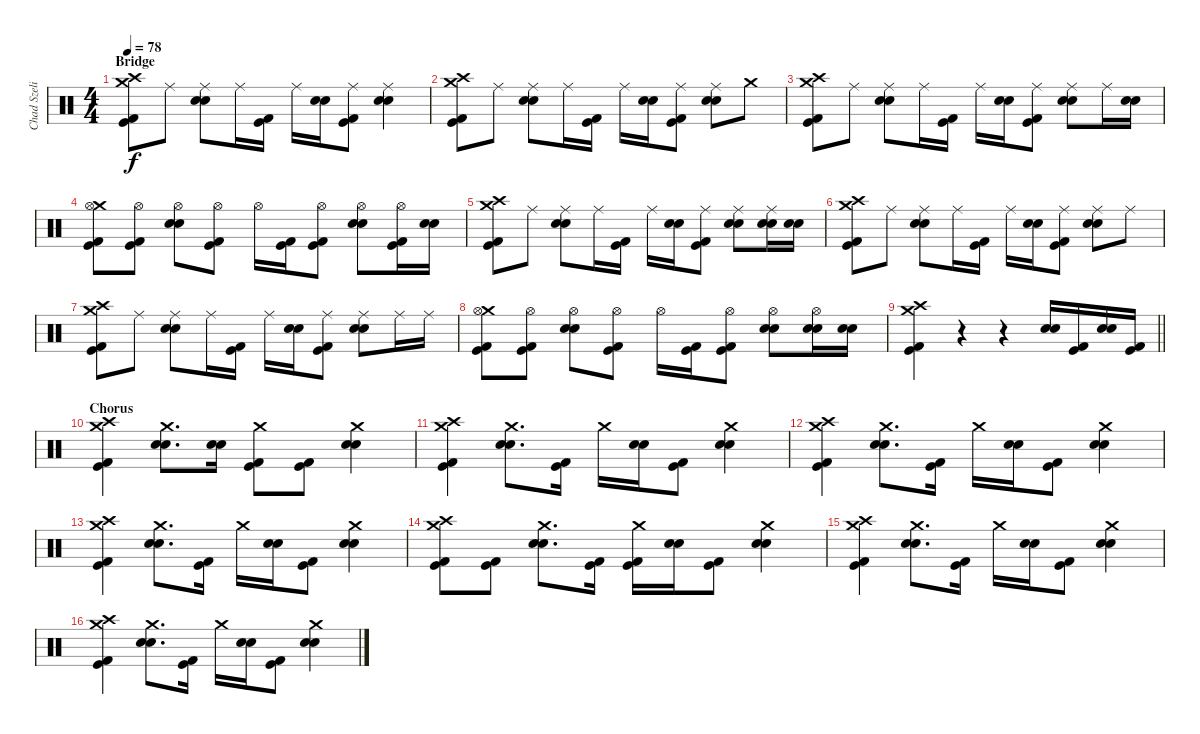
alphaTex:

\track ("Chad Szeliga" "Chad Szeli") {instrument percussion}
\staff {score}
\articulation defaults
\ts (4 4)
\section ("" "Bridge")
\tempo 78
\clef neutral
\ks c
("Crash high (hit)" "Kick (hit) 2" "Kick (hit)" "Crash medium (hit)").8{dy f} "Ride (middle)".8 ("Ride (middle)" "Snare (hit) 2" "Snare (hit) 2").8 "Ride (middle)".16 ("Kick (hit) 2" "Kick (hit)").16 "Ride (middle)".16 ("Snare (hit) 2" "Snare (hit) 2").16 ("Ride (middle)" "Kick (hit) 2" "Kick (hit)").8 ("Ride (middle)" "Snare (hit) 2" "Snare (hit) 2").4 |
("Crash high (hit)" "Kick (hit) 2" "Kick (hit)" "Crash medium (hit)").8 "Ride (middle)".8 ("Ride (middle)" "Snare (hit) 2" "Snare (hit) 2").8 "Ride (middle)".16 ("Kick (hit) 2" "Kick (hit)").16 "Ride (middle)".16 ("Snare (hit) 2" "Snare (hit) 2").16 ("Ride (middle)" "Kick (hit) 2" "Kick (hit)").8 ("Ride (middle)" "Snare (hit) 2" "Snare (hit) 2").8 "Crash medium (hit)".8 |
("Crash high (hit)" "Kick (hit) 2" "Kick (hit)" "Crash medium (hit)").8 "Ride (middle)".8 ("Ride (middle)" "Snare (hit) 2" "Snare (hit) 2").8 "Ride (middle)".16 ("Kick (hit) 2" "Kick (hit)").16 "Ride (middle)".16 ("Snare (hit) 2" "Snare (hit) 2").16 ("Ride (middle)" "Kick (hit) 2" "Kick (hit)").8 ("Ride (middle)" "Snare (hit) 2" "Snare (hit) 2").8 "Ride (middle)".16 ("Snare (hit) 2" "Snare (hit) 2").16 |
("Crash medium (hit)" "Kick (hit) 2" "Kick (hit)" "Hi-Hat (open)").8 ("Kick (hit) 2" "Kick (hit)" "Hi-Hat (open)").8 ("Snare (hit) 2" "Snare (hit) 2" "Hi-Hat (open)").8 ("Kick (hit) 2" "Kick (hit)" "Hi-Hat (open)").8 "Hi-Hat (open)".16 ("Kick (hit) 2" "Kick (hit)").16 ("Kick (hit) 2" "Kick (hit)" "Hi-Hat (open)").8 ("Snare (hit) 2" "Snare (hit) 2" "Hi-Hat (open)").8 ("Kick (hit) 2" "Kick (hit)" "Hi-Hat (open)").16 ("Snare (hit) 2" "Snare (hit) 2").16 |
("Crash high (hit)" "Kick (hit) 2" "Kick (hit)" "Crash medium (hit)").8 "Ride (middle)".8 ("Ride (middle)" "Snare (hit) 2" "Snare (hit) 2").8 "Ride (middle)".16 ("Kick (hit) 2" "Kick (hit)").16 "Ride (middle)".16 ("Snare (hit) 2" "Snare (hit) 2").16 ("Ride (middle)" "Kick (hit) 2" "Kick (hit)").8 ("Ride (middle)" "Snare (hit) 2" "Snare (hit) 2").8 ("Ride (middle)" "Snare (hit) 2" "Snare (hit) 2").16 ("Snare (hit) 2" "Snare (hit) 2").16 |
("Crash high (hit)" "Kick (hit) 2" "Kick (hit)" "Crash medium (hit)").8 "Ride (middle)".8 ("Ride (middle)" "Snare (hit) 2" "Snare (hit) 2").8 "Ride (middle)".16 ("Kick (hit) 2" "Kick (hit)").16 "Ride (middle)".16 ("Snare (hit) 2" "Snare (hit) 2").16 ("Ride (middle)" "Kick (hit) 2" "Kick (hit)").8 ("Ride (middle)" "Snare (hit) 2" "Snare (hit) 2").8 "Ride (middle)".8 |
("Crash high (hit)" "Kick (hit) 2" "Kick (hit)" "Crash medium (hit)").8 "Ride (middle)".8 ("Ride (middle)" "Snare (hit) 2" "Snare (hit) 2").8 "Ride (middle)".16 ("Kick (hit) 2" "Kick (hit)").16 "Ride (middle)".16 ("Snare (hit) 2" "Snare (hit) 2").16 ("Ride (middle)" "Kick (hit) 2" "Kick (hit)").8 ("Ride (middle)" "Snare (hit) 2" "Snare (hit) 2").8 "Ride (middle)".16 "Ride (middle)".16 |
("Crash medium (hit)" "Kick (hit) 2" "Kick (hit)" "Hi-Hat (open)").8 ("Kick (hit) 2" "Kick (hit)" "Hi-Hat (open)").8 ("Snare (hit) 2" "Snare (hit) 2" "Hi-Hat (open)").8 ("Kick (hit) 2" "Kick (hit)" "Hi-Hat (open)").8 "Hi-Hat (open)".16 ("Kick (hit) 2" "Kick (hit)").16 ("Kick (hit) 2" "Kick (hit)" "Hi-Hat (open)").8 ("Snare (hit) 2" "Snare (hit) 2" "Hi-Hat (open)").8 ("Snare (hit) 2" "Snare (hit) 2" "Hi-Hat (open)").16 ("Snare (hit) 2" "Snare (hit) 2").16 |
\barLineRight lightlight
("Crash high (hit)" "Kick (hit) 2" "Kick (hit)" "Crash medium (hit)").4 r.4 r.4 ("Snare (hit) 2" "Snare (hit) 2").16 ("Kick (hit) 2" "Kick (hit)").16 ("Snare (hit) 2" "Snare (hit) 2").16 ("Kick (hit) 2" "Kick (hit)").16 |
\section ("" "Chorus")
("Crash high (hit)" "Kick (hit) 2" "Kick (hit)" "Crash medium (hit)").4 ("Crash medium (hit)" "Snare (hit) 2" "Snare (hit) 2").8{d} ("Snare (hit) 2" "Snare (hit) 2").16 ("Crash medium (hit)" "Kick (hit) 2" "Kick (hit)").8 ("Kick (hit) 2" "Kick (hit)").8 ("Crash medium (hit)" "Snare (hit) 2" "Snare (hit) 2").4 |
("Crash high (hit)" "Kick (hit) 2" "Kick (hit)" "Crash medium (hit)").4 ("Crash medium (hit)" "Snare (hit) 2" "Snare (hit) 2").8{d} ("Kick (hit) 2" "Kick (hit)").16 "Crash medium (hit)".16 ("Snare (hit) 2" "Snare (hit) 2").16 ("Kick (hit) 2" "Kick (hit)").8 ("Crash medium (hit)" "Snare (hit) 2" "Snare (hit) 2").4 |
("Crash high (hit)" "Kick (hit) 2" "Kick (hit)" "Crash medium (hit)").4 ("Crash medium (hit)" "Snare (hit) 2" "Snare (hit) 2").8{d} ("Kick (hit) 2" "Kick (hit)").16 "Crash medium (hit)".16 ("Snare (hit) 2" "Snare (hit) 2").16 ("Kick (hit) 2" "Kick (hit)").8 ("Crash medium (hit)" "Snare (hit) 2" "Snare (hit) 2").4 |
("Crash high (hit)" "Kick (hit) 2" "Kick (hit)" "Crash medium (hit)").4 ("Crash medium (hit)" "Snare (hit) 2" "Snare (hit) 2").8{d} ("Kick (hit) 2" "Kick (hit)").16 "Crash medium (hit)".16 ("Snare (hit) 2" "Snare (hit) 2").16 ("Kick (hit) 2" "Kick (hit)").8 ("Crash medium (hit)" "Snare (hit) 2" "Snare (hit) 2").4 |
("Crash high (hit)" "Kick (hit) 2" "Kick (hit)" "Crash medium (hit)").8 ("Kick (hit) 2" "Kick (hit)").8 ("Crash medium (hit)" "Snare (hit) 2" "Snare (hit) 2").8{d} ("Kick (hit) 2" "Kick (hit)").16 ("Crash medium (hit)" "Kick (hit) 2" "Kick (hit)").16 ("Snare (hit) 2" "Snare (hit) 2").16 ("Kick (hit) 2" "Kick (hit)").8 ("Crash medium (hit)" "Snare (hit) 2" "Snare (hit) 2").4 |
("Crash high (hit)" "Kick (hit) 2" "Kick (hit)" "Crash medium (hit)").4 ("Crash medium (hit)" "Snare (hit) 2" "Snare (hit) 2").8{d} ("Kick (hit) 2" "Kick (hit)").16 "Crash medium (hit)".16 ("Snare (hit) 2" "Snare (hit) 2").16 ("Kick (hit) 2" "Kick (hit)").8 ("Crash medium (hit)" "Snare (hit) 2" "Snare (hit) 2").4 |
("Crash high (hit)" "Kick (hit) 2" "Kick (hit)" "Crash medium (hit)").4 ("Crash medium (hit)" "Snare (hit) 2" "Snare (hit) 2").8{d} ("Kick (hit) 2" "Kick (hit)").16 "Crash medium (hit)".16 ("Snare (hit) 2" "Snare (hit) 2").16 ("Kick (hit) 2" "Kick (hit)").8 ("Crash medium (hit)" "Snare (hit) 2" "Snare (hit) 2").4
